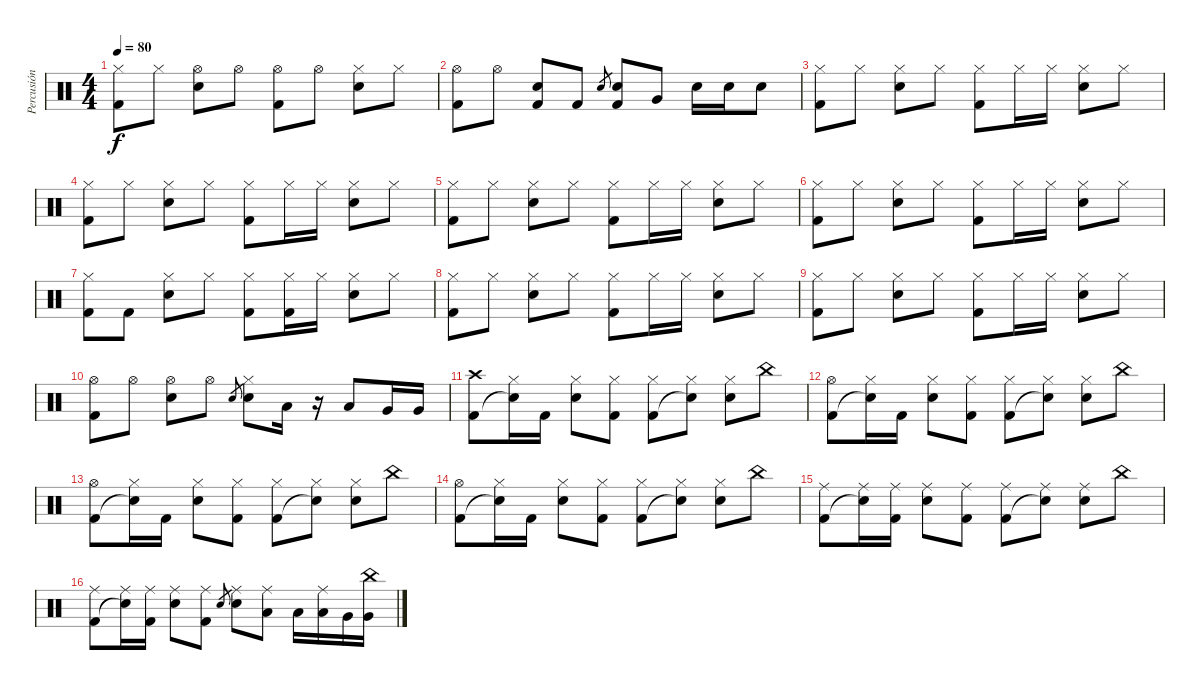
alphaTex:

\track ("Percusión" "Percusión") {instrument percussion}
\staff {score}
\articulation defaults
\ts (4 4)
\tempo 80
\clef neutral
\ks c
("Kick (hit) 2" "Hi-Hat (closed)").8{dy f} "Hi-Hat (closed)".8 ("Electric Snare (hit)" "Hi-Hat (open)").8 "Hi-Hat (open)".8 ("Kick (hit) 2" "Hi-Hat (open)").8 "Hi-Hat (open)".8 ("Electric Snare (hit)" "Hi-Hat (closed)").8 "Hi-Hat (closed)".8 |
("Kick (hit) 2" "Hi-Hat (open)").8 "Hi-Hat (open)".8 ("Electric Snare (hit)" "Kick (hit) 2").8 "Kick (hit) 2".8 "Electric Snare (hit)".8{gr} ("Kick (hit) 2" "Electric Snare (hit)").8 "Very Low Tom (hit)".8 "Electric Snare (hit)".16 "Electric Snare (hit)".16 "Electric Snare (hit)".8 |
("Kick (hit) 2" "Hi-Hat (closed)").8 "Hi-Hat (closed)".8 ("Electric Snare (hit)" "Hi-Hat (closed)").8 "Hi-Hat (closed)".8 ("Kick (hit) 2" "Hi-Hat (closed)").8 "Hi-Hat (closed)".16 "Hi-Hat (closed)".16 ("Electric Snare (hit)" "Hi-Hat (closed)").8 "Hi-Hat (closed)".8 |
("Kick (hit) 2" "Hi-Hat (closed)").8 "Hi-Hat (closed)".8 ("Electric Snare (hit)" "Hi-Hat (closed)").8 "Hi-Hat (closed)".8 ("Kick (hit) 2" "Hi-Hat (closed)").8 "Hi-Hat (closed)".16 "Hi-Hat (closed)".16 ("Electric Snare (hit)" "Hi-Hat (closed)").8 "Hi-Hat (closed)".8 |
("Kick (hit) 2" "Hi-Hat (closed)").8 "Hi-Hat (closed)".8 ("Electric Snare (hit)" "Hi-Hat (closed)").8 "Hi-Hat (closed)".8 ("Kick (hit) 2" "Hi-Hat (closed)").8 "Hi-Hat (closed)".16 "Hi-Hat (closed)".16 ("Electric Snare (hit)" "Hi-Hat (closed)").8 "Hi-Hat (closed)".8 |
("Kick (hit) 2" "Hi-Hat (closed)").8 "Hi-Hat (closed)".8 ("Electric Snare (hit)" "Hi-Hat (closed)").8 "Hi-Hat (closed)".8 ("Kick (hit) 2" "Hi-Hat (closed)").8 "Hi-Hat (closed)".16 "Hi-Hat (closed)".16 ("Electric Snare (hit)" "Hi-Hat (closed)").8 "Hi-Hat (closed)".8 |
("Kick (hit) 2" "Hi-Hat (closed)").8 "Kick (hit) 2".8 ("Electric Snare (hit)" "Hi-Hat (closed)").8 "Hi-Hat (closed)".8 ("Kick (hit) 2" "Hi-Hat (closed)").8 ("Kick (hit) 2" "Hi-Hat (closed)").16 "Hi-Hat (closed)".16 ("Electric Snare (hit)" "Hi-Hat (closed)").8 "Hi-Hat (closed)".8 |
("Kick (hit) 2" "Hi-Hat (closed)").8 "Hi-Hat (closed)".8 ("Electric Snare (hit)" "Hi-Hat (closed)").8 "Hi-Hat (closed)".8 ("Kick (hit) 2" "Hi-Hat (closed)").8 "Hi-Hat (closed)".16 "Hi-Hat (closed)".16 ("Electric Snare (hit)" "Hi-Hat (closed)").8 "Hi-Hat (closed)".8 |
("Kick (hit) 2" "Hi-Hat (closed)").8 "Hi-Hat (closed)".8 ("Electric Snare (hit)" "Hi-Hat (closed)").8 "Hi-Hat (closed)".8 ("Kick (hit) 2" "Hi-Hat (closed)").8 "Hi-Hat (closed)".16 "Hi-Hat (closed)".16 ("Electric Snare (hit)" "Hi-Hat (closed)").8 "Hi-Hat (closed)".8 |
("Kick (hit) 2" "Hi-Hat (open)").8 "Hi-Hat (open)".8 ("Electric Snare (hit)" "Hi-Hat (open)").8 "Hi-Hat (open)".8 "Electric Snare (hit)".8{gr} ("Electric Snare (hit)" "Hi-Hat (closed)").8 "Low Tom (hit)".16 r.16 "Low Tom (hit)".8 "Very Low Tom (hit)".16 "Very Low Tom (hit)".16 |
("Kick (hit) 2" "Crash high (hit)").8 ("Snare (hit)"{t} "Hi-Hat (closed)").16 "Kick (hit) 2".16 ("Electric Snare (hit)" "Hi-Hat (closed)").8 ("Kick (hit) 2" "Hi-Hat (closed)").8 ("Kick (hit) 2" "Hi-Hat (closed)").8 ("Snare (hit)"{t} "Hi-Hat (closed)").8 ("Electric Snare (hit)" "Hi-Hat (closed)").8 "China (hit)".8 |
("Kick (hit) 2" "Hi-Hat (open)").8 ("Snare (hit)"{t} "Hi-Hat (closed)").16 "Kick (hit) 2".16 ("Electric Snare (hit)" "Hi-Hat (closed)").8 ("Kick (hit) 2" "Hi-Hat (closed)").8 ("Kick (hit) 2" "Hi-Hat (closed)").8 ("Snare (hit)"{t} "Hi-Hat (closed)").8 ("Electric Snare (hit)" "Hi-Hat (closed)").8 "China (hit)".8 |
("Kick (hit) 2" "Hi-Hat (open)").8 ("Snare (hit)"{t} "Hi-Hat (closed)").16 "Kick (hit) 2".16 ("Electric Snare (hit)" "Hi-Hat (closed)").8 ("Kick (hit) 2" "Hi-Hat (closed)").8 ("Kick (hit) 2" "Hi-Hat (closed)").8 ("Snare (hit)"{t} "Hi-Hat (closed)").8 ("Electric Snare (hit)" "Hi-Hat (closed)").8 "China (hit)".8 |
("Kick (hit) 2" "Hi-Hat (open)").8 ("Snare (hit)"{t} "Hi-Hat (closed)").16 "Kick (hit) 2".16 ("Electric Snare (hit)" "Hi-Hat (closed)").8 ("Kick (hit) 2" "Hi-Hat (closed)").8 ("Kick (hit) 2" "Hi-Hat (closed)").8 ("Snare (hit)"{t} "Hi-Hat (closed)").8 ("Electric Snare (hit)" "Hi-Hat (closed)").8 "China (hit)".8 |
("Kick (hit) 2" "Ride (middle)").8 ("Snare (hit)"{t} "Ride (middle)").16 ("Kick (hit) 2" "Ride (middle)").16 ("Electric Snare (hit)" "Ride (middle)").8 ("Kick (hit) 2" "Ride (middle)").8 ("Kick (hit) 2" "Ride (middle)").8 ("Snare (hit)"{t} "Ride (middle)").8 ("Electric Snare (hit)" "Ride (middle)").8 "China (hit)".8 |
("Kick (hit) 2" "Ride (middle)").8 ("Snare (hit)"{t} "Ride (middle)").16 ("Kick (hit) 2" "Ride (middle)").16 ("Electric Snare (hit)" "Ride (middle)").8 ("Kick (hit) 2" "Ride (middle)").8 "Electric Snare (hit)".8{gr} ("Electric Snare (hit)" "Ride (middle)").8 ("Low Tom (hit)" "Ride (middle)").8 "Low Tom (hit)".16 ("Low Tom (hit)" "Ride (middle)").16 "Very Low Tom (hit)".16 ("Very Low Tom (hit)" "China (hit)").16
